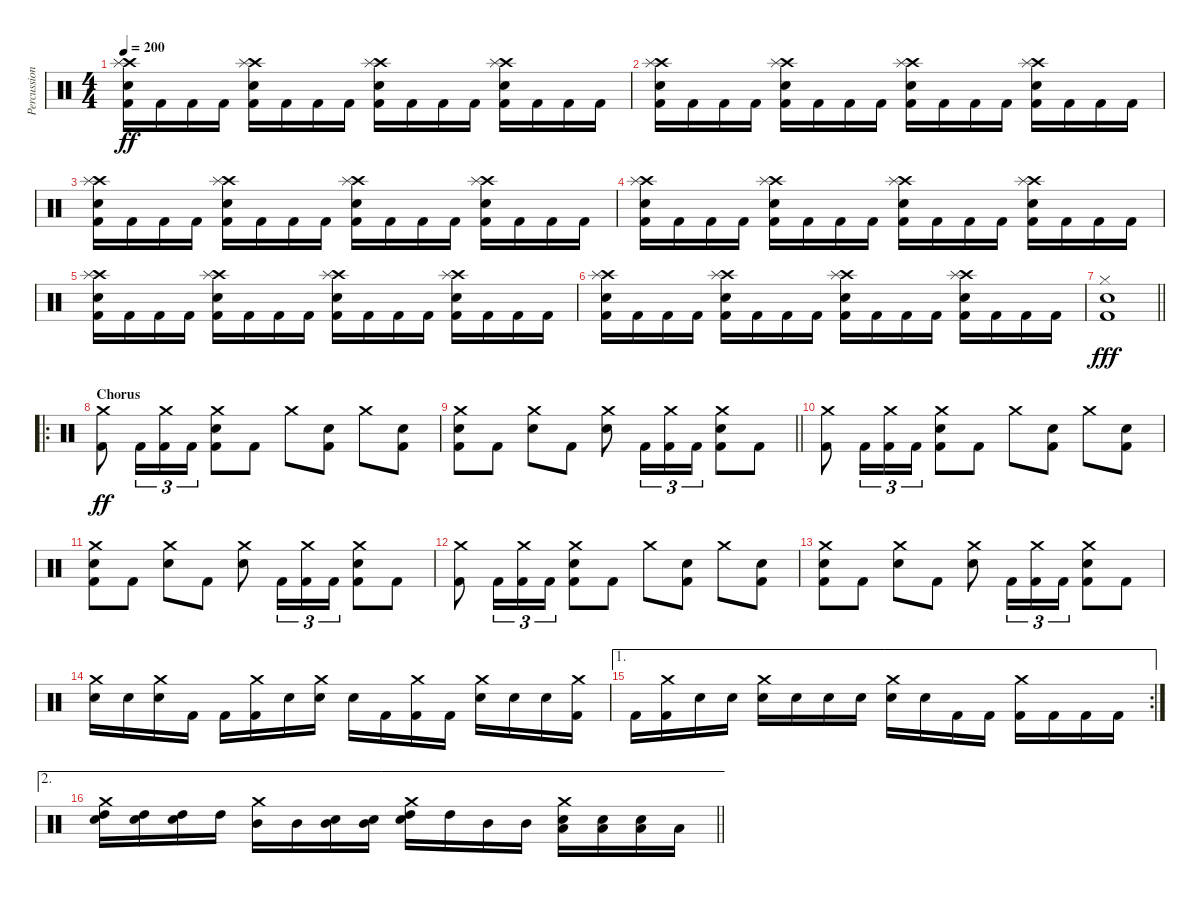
\track ("Percussion" "Percussion") {instrument percussion}
\staff {score}
\articulation defaults
\ts (4 4)
\tempo 200
\clef neutral
\ks c
("Crash high (hit)" "Splash (hit)" "Electric Snare (hit)" "Kick (hit) 2").16{dy ff} "Kick (hit) 2".16 "Kick (hit) 2".16 "Kick (hit) 2".16 ("Crash high (hit)" "Splash (hit)" "Electric Snare (hit)" "Kick (hit) 2").16 "Kick (hit) 2".16 "Kick (hit) 2".16 "Kick (hit) 2".16 ("Crash high (hit)" "Splash (hit)" "Electric Snare (hit)" "Kick (hit) 2").16 "Kick (hit) 2".16 "Kick (hit) 2".16 "Kick (hit) 2".16 ("Crash high (hit)" "Splash (hit)" "Electric Snare (hit)" "Kick (hit) 2").16 "Kick (hit) 2".16 "Kick (hit) 2".16 "Kick (hit) 2".16 |
("Crash high (hit)" "Splash (hit)" "Electric Snare (hit)" "Kick (hit) 2").16 "Kick (hit) 2".16 "Kick (hit) 2".16 "Kick (hit) 2".16 ("Crash high (hit)" "Splash (hit)" "Electric Snare (hit)" "Kick (hit) 2").16 "Kick (hit) 2".16 "Kick (hit) 2".16 "Kick (hit) 2".16 ("Crash high (hit)" "Splash (hit)" "Electric Snare (hit)" "Kick (hit) 2").16 "Kick (hit) 2".16 "Kick (hit) 2".16 "Kick (hit) 2".16 ("Crash high (hit)" "Splash (hit)" "Electric Snare (hit)" "Kick (hit) 2").16 "Kick (hit) 2".16 "Kick (hit) 2".16 "Kick (hit) 2".16 |
("Crash high (hit)" "Splash (hit)" "Electric Snare (hit)" "Kick (hit) 2").16 "Kick (hit) 2".16 "Kick (hit) 2".16 "Kick (hit) 2".16 ("Crash high (hit)" "Splash (hit)" "Electric Snare (hit)" "Kick (hit) 2").16 "Kick (hit) 2".16 "Kick (hit) 2".16 "Kick (hit) 2".16 ("Crash high (hit)" "Splash (hit)" "Electric Snare (hit)" "Kick (hit) 2").16 "Kick (hit) 2".16 "Kick (hit) 2".16 "Kick (hit) 2".16 ("Crash high (hit)" "Splash (hit)" "Electric Snare (hit)" "Kick (hit) 2").16 "Kick (hit) 2".16 "Kick (hit) 2".16 "Kick (hit) 2".16 |
("Crash high (hit)" "Splash (hit)" "Electric Snare (hit)" "Kick (hit) 2").16 "Kick (hit) 2".16 "Kick (hit) 2".16 "Kick (hit) 2".16 ("Crash high (hit)" "Splash (hit)" "Electric Snare (hit)" "Kick (hit) 2").16 "Kick (hit) 2".16 "Kick (hit) 2".16 "Kick (hit) 2".16 ("Crash high (hit)" "Splash (hit)" "Electric Snare (hit)" "Kick (hit) 2").16 "Kick (hit) 2".16 "Kick (hit) 2".16 "Kick (hit) 2".16 ("Crash high (hit)" "Splash (hit)" "Electric Snare (hit)" "Kick (hit) 2").16 "Kick (hit) 2".16 "Kick (hit) 2".16 "Kick (hit) 2".16 |
("Crash high (hit)" "Splash (hit)" "Electric Snare (hit)" "Kick (hit) 2").16 "Kick (hit) 2".16 "Kick (hit) 2".16 "Kick (hit) 2".16 ("Crash high (hit)" "Splash (hit)" "Electric Snare (hit)" "Kick (hit) 2").16 "Kick (hit) 2".16 "Kick (hit) 2".16 "Kick (hit) 2".16 ("Crash high (hit)" "Splash (hit)" "Electric Snare (hit)" "Kick (hit) 2").16 "Kick (hit) 2".16 "Kick (hit) 2".16 "Kick (hit) 2".16 ("Crash high (hit)" "Splash (hit)" "Electric Snare (hit)" "Kick (hit) 2").16 "Kick (hit) 2".16 "Kick (hit) 2".16 "Kick (hit) 2".16 |
("Crash high (hit)" "Splash (hit)" "Electric Snare (hit)" "Kick (hit) 2").16 "Kick (hit) 2".16 "Kick (hit) 2".16 "Kick (hit) 2".16 ("Crash high (hit)" "Splash (hit)" "Electric Snare (hit)" "Kick (hit) 2").16 "Kick (hit) 2".16 "Kick (hit) 2".16 "Kick (hit) 2".16 ("Crash high (hit)" "Splash (hit)" "Electric Snare (hit)" "Kick (hit) 2").16 "Kick (hit) 2".16 "Kick (hit) 2".16 "Kick (hit) 2".16 ("Crash high (hit)" "Splash (hit)" "Electric Snare (hit)" "Kick (hit) 2").16 "Kick (hit) 2".16 "Kick (hit) 2".16 "Kick (hit) 2".16 |
\barLineRight lightlight
("Hi-Hat (closed)" "Electric Snare (hit)" "Kick (hit) 2").1{dy fff} |
\ro
\section ("" "Chorus ")
("Crash medium (hit)" "Kick (hit) 2").8{dy ff} "Kick (hit) 2".16{tu (3 2)} ("Crash medium (hit)" "Kick (hit) 2").16{tu (3 2)} "Kick (hit) 2".16{tu (3 2)} ("Crash medium (hit)" "Electric Snare (hit)" "Kick (hit) 2").8 "Kick (hit) 2".8 "Crash medium (hit)".8 ("Electric Snare (hit)" "Kick (hit) 2").8 "Crash medium (hit)".8 ("Electric Snare (hit)" "Kick (hit) 2").8 |
\barLineRight lightlight
("Crash medium (hit)" "Electric Snare (hit)" "Kick (hit) 2").8 "Kick (hit) 2".8 ("Crash medium (hit)" "Electric Snare (hit)").8 "Kick (hit) 2".8 ("Crash medium (hit)" "Electric Snare (hit)").8 "Kick (hit) 2".16{tu (3 2)} ("Crash medium (hit)" "Kick (hit) 2").16{tu (3 2)} "Kick (hit) 2".16{tu (3 2)} ("Crash medium (hit)" "Electric Snare (hit)" "Kick (hit) 2").8 "Kick (hit) 2".8 |
("Crash medium (hit)" "Kick (hit) 2").8 "Kick (hit) 2".16{tu (3 2)} ("Crash medium (hit)" "Kick (hit) 2").16{tu (3 2)} "Kick (hit) 2".16{tu (3 2)} ("Crash medium (hit)" "Electric Snare (hit)" "Kick (hit) 2").8 "Kick (hit) 2".8 "Crash medium (hit)".8 ("Electric Snare (hit)" "Kick (hit) 2").8 "Crash medium (hit)".8 ("Electric Snare (hit)" "Kick (hit) 2").8 |
("Crash medium (hit)" "Electric Snare (hit)" "Kick (hit) 2").8 "Kick (hit) 2".8 ("Crash medium (hit)" "Electric Snare (hit)").8 "Kick (hit) 2".8 ("Crash medium (hit)" "Electric Snare (hit)").8 "Kick (hit) 2".16{tu (3 2)} ("Crash medium (hit)" "Kick (hit) 2").16{tu (3 2)} "Kick (hit) 2".16{tu (3 2)} ("Crash medium (hit)" "Electric Snare (hit)" "Kick (hit) 2").8 "Kick (hit) 2".8 |
("Crash medium (hit)" "Kick (hit) 2").8 "Kick (hit) 2".16{tu (3 2)} ("Crash medium (hit)" "Kick (hit) 2").16{tu (3 2)} "Kick (hit) 2".16{tu (3 2)} ("Crash medium (hit)" "Electric Snare (hit)" "Kick (hit) 2").8 "Kick (hit) 2".8 "Crash medium (hit)".8 ("Electric Snare (hit)" "Kick (hit) 2").8 "Crash medium (hit)".8 ("Electric Snare (hit)" "Kick (hit) 2").8 |
("Crash medium (hit)" "Electric Snare (hit)" "Kick (hit) 2").8 "Kick (hit) 2".8 ("Crash medium (hit)" "Electric Snare (hit)").8 "Kick (hit) 2".8 ("Crash medium (hit)" "Electric Snare (hit)").8 "Kick (hit) 2".16{tu (3 2)} ("Crash medium (hit)" "Kick (hit) 2").16{tu (3 2)} "Kick (hit) 2".16{tu (3 2)} ("Crash medium (hit)" "Electric Snare (hit)" "Kick (hit) 2").8 "Kick (hit) 2".8 |
("Crash medium (hit)" "Electric Snare (hit)").16 "Electric Snare (hit)".16 ("Crash medium (hit)" "Electric Snare (hit)").16 "Kick (hit) 2".16 "Kick (hit) 2".16 ("Crash medium (hit)" "Kick (hit) 2").16 "Electric Snare (hit)".16 ("Crash medium (hit)" "Electric Snare (hit)").16 "Electric Snare (hit)".16 "Kick (hit) 2".16 ("Crash medium (hit)" "Kick (hit) 2").16 "Kick (hit) 2".16 ("Crash medium (hit)" "Electric Snare (hit)").16 "Electric Snare (hit)".16 "Electric Snare (hit)".16 ("Crash medium (hit)" "Kick (hit) 2").16 |
\ae 1
\rc 2 "Kick (hit) 2".16
("Crash medium (hit)" "Kick (hit) 2").16 "Electric Snare (hit)".16 "Electric Snare (hit)".16 ("Crash medium (hit)" "Electric Snare (hit)").16 "Electric Snare (hit)".16 "Electric Snare (hit)".16 "Electric Snare (hit)".16 ("Crash medium (hit)" "Electric Snare (hit)").16 "Electric Snare (hit)".16 "Kick (hit) 2".16 "Kick (hit) 2".16 ("Crash medium (hit)" "Kick (hit) 2").16 "Kick (hit) 2".16 "Kick (hit) 2".16 "Kick (hit) 2".16 |
\ae 2
\barLineRight lightlight
("Crash medium (hit)" "High Tom (hit)" "Electric Snare (hit)").16 ("High Tom (hit)" "Electric Snare (hit)").16 ("High Tom (hit)" "Electric Snare (hit)").16 "High Tom (hit)".16 ("Crash medium (hit)" "Mid Tom (hit)").16 "Mid Tom (hit)".16 ("Mid Tom (hit)" "Electric Snare (hit)").16 ("Mid Tom (hit)" "Electric Snare (hit)").16 ("Crash medium (hit)" "High Tom (hit)" "Electric Snare (hit)").16 "High Tom (hit)".16 "Mid Tom (hit)".16 "Mid Tom (hit)".16 ("Crash medium (hit)" "Low Tom (hit)" "Electric Snare (hit)").16 ("Low Tom (hit)" "Electric Snare (hit)").16 ("Low Tom (hit)" "Electric Snare (hit)").16 "Low Tom (hit)".16
